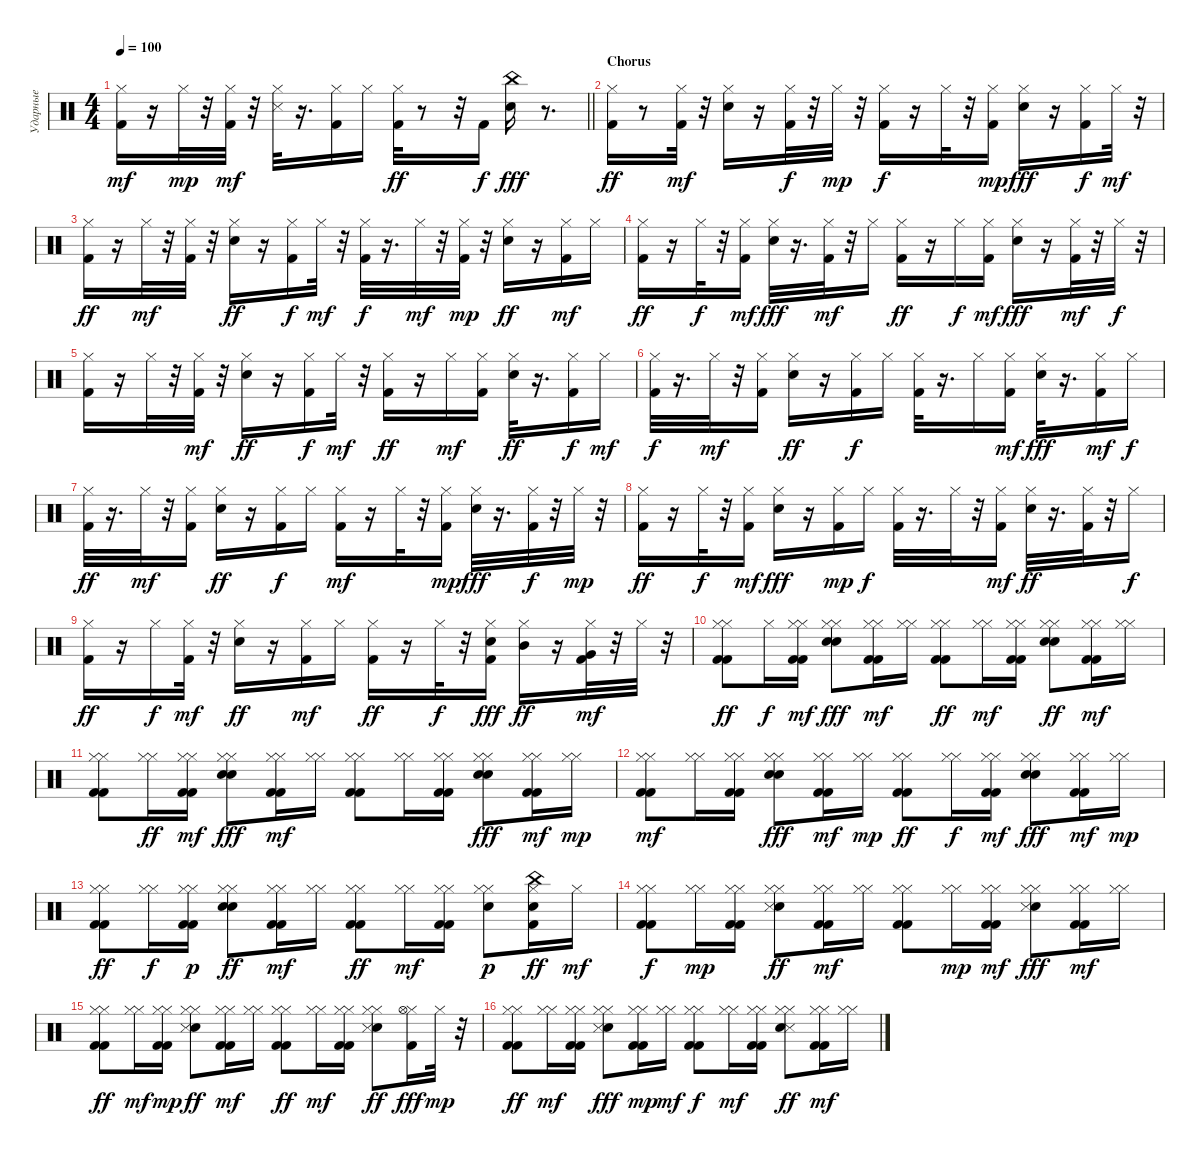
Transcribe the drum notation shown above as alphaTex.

\track ("Ударные" "Ударные") {instrument percussion}
\staff {score}
\articulation defaults
\ts (4 4)
\tempo 100
\clef neutral
\barLineRight lightlight
\ks c
("Kick (hit) 2" "Hi-Hat (closed)").16{dy mf} r.16 "Hi-Hat (closed)".32{dy mp} r.32 ("Kick (hit) 2" "Hi-Hat (closed)").32{dy mf} r.32 ("Hi-Hat (closed)" "Snare (side stick) 3").32 r.16{d} ("Kick (hit) 2" "Hi-Hat (closed)").16 "Hi-Hat (closed)".16 ("Kick (hit) 2" "Hi-Hat (closed)").32{dy ff} r.8 r.32 "Kick (hit) 2".16{dy f} ("China (hit)" "Snare (hit) 2").16{dy fff} r.8{d} |
\section ("" "Chorus")
("Kick (hit) 2" "Hi-Hat (closed)").16{dy ff} r.8 ("Hi-Hat (closed)" "Kick (hit) 2").32{dy mf} r.32 ("Snare (hit) 2" "Hi-Hat (closed)").16 r.16 ("Kick (hit) 2" "Hi-Hat (closed)").32{dy f} r.32 "Hi-Hat (closed)".32{dy mp} r.32 ("Kick (hit) 2" "Hi-Hat (closed)").16{dy f} r.16 "Hi-Hat (closed)".32 r.32 ("Kick (hit) 2" "Hi-Hat (closed)").16{dy mp} ("Hi-Hat (closed)" "Snare (hit) 2").16{dy fff} r.16 ("Kick (hit) 2" "Hi-Hat (closed)").16{dy f} "Hi-Hat (closed)".32{dy mf} r.32 |
("Kick (hit) 2" "Hi-Hat (closed)").16{dy ff} r.16 "Hi-Hat (closed)".32{dy mf} r.32 ("Kick (hit) 2" "Hi-Hat (closed)").32 r.32 ("Hi-Hat (closed)" "Snare (hit) 2").16{dy ff} r.16 ("Kick (hit) 2" "Hi-Hat (closed)").16{dy f} "Hi-Hat (closed)".32{dy mf} r.32 ("Kick (hit) 2" "Hi-Hat (closed)").32{dy f} r.16{d} "Hi-Hat (closed)".32{dy mf} r.32 ("Kick (hit) 2" "Hi-Hat (closed)").32{dy mp} r.32 ("Hi-Hat (closed)" "Snare (hit) 2").16{dy ff} r.16 ("Hi-Hat (closed)" "Kick (hit) 2").16{dy mf} "Hi-Hat (closed)".16 |
("Hi-Hat (closed)" "Kick (hit) 2").16{dy ff} r.16 "Hi-Hat (closed)".32{dy f} r.32 ("Kick (hit) 2" "Hi-Hat (closed)").16{dy mf} ("Hi-Hat (closed)" "Snare (hit) 2").32{dy fff} r.16{d} ("Kick (hit) 2" "Hi-Hat (closed)").32{dy mf} r.32 "Hi-Hat (closed)".16 ("Hi-Hat (closed)" "Kick (hit) 2").16{dy ff} r.16 "Hi-Hat (closed)".16{dy f} ("Kick (hit) 2" "Hi-Hat (closed)").16{dy mf} ("Hi-Hat (closed)" "Snare (hit) 2").16{dy fff} r.16 ("Kick (hit) 2" "Hi-Hat (closed)").32{dy mf} r.32 "Hi-Hat (closed)".32{dy f} r.32 |
("Hi-Hat (closed)" "Kick (hit) 2").16 r.16 "Hi-Hat (closed)".32 r.32 ("Kick (hit) 2" "Hi-Hat (closed)").32{dy mf} r.32 ("Hi-Hat (closed)" "Snare (hit) 2").16{dy ff} r.16 ("Kick (hit) 2" "Hi-Hat (closed)").16{dy f} "Hi-Hat (closed)".32{dy mf} r.32 ("Kick (hit) 2" "Hi-Hat (closed)").16{dy ff} r.16 "Hi-Hat (closed)".16{dy mf} ("Kick (hit) 2" "Hi-Hat (closed)").16 ("Hi-Hat (closed)" "Snare (hit) 2").32{dy ff} r.16{d} ("Kick (hit) 2" "Hi-Hat (closed)").16{dy f} "Hi-Hat (closed)".16{dy mf} |
("Kick (hit) 2" "Hi-Hat (closed)").32{dy f} r.16{d} "Hi-Hat (closed)".32{dy mf} r.32 ("Kick (hit) 2" "Hi-Hat (closed)").16 ("Hi-Hat (closed)" "Snare (hit) 2").16{dy ff} r.16 ("Kick (hit) 2" "Hi-Hat (closed)").16{dy f} "Hi-Hat (closed)".16 ("Kick (hit) 2" "Hi-Hat (closed)").32 r.16{d} "Hi-Hat (closed)".16 ("Kick (hit) 2" "Hi-Hat (closed)").16{dy mf} ("Hi-Hat (closed)" "Snare (hit) 2").32{dy fff} r.16{d} ("Kick (hit) 2" "Hi-Hat (closed)").16{dy mf} "Hi-Hat (closed)".16{dy f} |
("Kick (hit) 2" "Hi-Hat (closed)").32{dy ff} r.16{d} "Hi-Hat (closed)".32{dy mf} r.32 ("Kick (hit) 2" "Hi-Hat (closed)").16 ("Hi-Hat (closed)" "Snare (hit) 2").16{dy ff} r.16 ("Kick (hit) 2" "Hi-Hat (closed)").16{dy f} "Hi-Hat (closed)".16 ("Hi-Hat (closed)" "Kick (hit) 2").16{dy mf} r.16 "Hi-Hat (closed)".32 r.32 ("Kick (hit) 2" "Hi-Hat (closed)").16{dy mp} ("Hi-Hat (closed)" "Snare (hit) 2").32{dy fff} r.16{d} ("Kick (hit) 2" "Hi-Hat (closed)").32{dy f} r.32 "Hi-Hat (closed)".32{dy mp} r.32 |
("Kick (hit) 2" "Hi-Hat (closed)").16{dy ff} r.16 "Hi-Hat (closed)".32{dy f} r.32 ("Hi-Hat (closed)" "Kick (hit) 2").16{dy mf} ("Hi-Hat (closed)" "Snare (hit) 2").16{dy fff} r.16 ("Kick (hit) 2" "Hi-Hat (closed)").16{dy mp} "Hi-Hat (closed)".16{dy f} ("Kick (hit) 2" "Hi-Hat (closed)").32 r.16{d} "Hi-Hat (closed)".32 r.32 ("Kick (hit) 2" "Hi-Hat (closed)").16{dy mf} ("Hi-Hat (closed)" "Snare (hit) 2").32{dy ff} r.16{d} ("Kick (hit) 2" "Hi-Hat (closed)").32 r.32 "Hi-Hat (closed)".16{dy f} |
("Hi-Hat (closed)" "Kick (hit) 2").16{dy ff} r.16 "Hi-Hat (closed)".16{dy f} ("Kick (hit) 2" "Hi-Hat (closed)").32{dy mf} r.32 ("Hi-Hat (closed)" "Snare (hit) 2").16{dy ff} r.16 ("Hi-Hat (closed)" "Kick (hit) 2").16{dy mf} "Hi-Hat (closed)".16 ("Hi-Hat (closed)" "Kick (hit) 2").16{dy ff} r.16 "Hi-Hat (closed)".32{dy f} r.32 ("Hi-Hat (closed)" "Kick (hit) 2" "Snare (hit) 2").16{dy fff} ("Hi-Hat (closed)" "Mid Tom (hit)").16{dy ff} r.16 ("Kick (hit) 2" "Hi-Hat (closed)" "Very Low Tom (hit)").32{dy mf} r.32 "Hi-Hat (closed)".32 r.32 |
("Kick (hit) 2" "Hi-Hat (closed)" "Kick (hit) 2" "Hi-Hat (closed)").8{dy ff} "Hi-Hat (closed)".16{dy f} ("Hi-Hat (closed)" "Kick (hit) 2" "Kick (hit) 2" "Hi-Hat (closed)").16{dy mf} ("Snare (hit) 2" "Hi-Hat (closed)" "Hi-Hat (closed)" "Snare (hit) 2").8{dy fff} ("Kick (hit) 2" "Hi-Hat (closed)" "Kick (hit) 2" "Hi-Hat (closed)").16{dy mf} ("Hi-Hat (closed)" "Hi-Hat (closed)").16 ("Kick (hit) 2" "Hi-Hat (closed)" "Kick (hit) 2" "Hi-Hat (closed)").8{dy ff} ("Hi-Hat (closed)" "Hi-Hat (closed)").16{dy mf} ("Kick (hit) 2" "Hi-Hat (closed)" "Kick (hit) 2" "Hi-Hat (closed)").16 ("Hi-Hat (closed)" "Hi-Hat (closed)" "Snare (hit) 2" "Snare (hit) 2").8{dy ff} ("Kick (hit) 2" "Hi-Hat (closed)" "Kick (hit) 2" "Hi-Hat (closed)").16{dy mf} ("Hi-Hat (closed)" "Hi-Hat (closed)").16 |
("Kick (hit) 2" "Hi-Hat (closed)" "Kick (hit) 2" "Hi-Hat (closed)").8 ("Hi-Hat (closed)" "Hi-Hat (closed)").16{dy ff} ("Kick (hit) 2" "Hi-Hat (closed)" "Kick (hit) 2" "Hi-Hat (closed)").16{dy mf} ("Hi-Hat (closed)" "Snare (hit) 2" "Hi-Hat (closed)" "Snare (hit) 2").8{dy fff} ("Kick (hit) 2" "Hi-Hat (closed)" "Kick (hit) 2" "Hi-Hat (closed)").16{dy mf} ("Hi-Hat (closed)" "Hi-Hat (closed)").16 ("Kick (hit) 2" "Hi-Hat (closed)" "Kick (hit) 2" "Hi-Hat (closed)").8 ("Hi-Hat (closed)" "Hi-Hat (closed)").16 ("Kick (hit) 2" "Hi-Hat (closed)" "Hi-Hat (closed)" "Kick (hit) 2").16 ("Hi-Hat (closed)" "Hi-Hat (closed)" "Snare (hit) 2" "Snare (hit) 2").8{dy fff} ("Hi-Hat (closed)" "Kick (hit) 2" "Kick (hit) 2" "Hi-Hat (closed)").16{dy mf} ("Hi-Hat (closed)" "Hi-Hat (closed)").16{dy mp} |
("Hi-Hat (closed)" "Kick (hit) 2" "Hi-Hat (closed)" "Kick (hit) 2").8{dy mf} ("Hi-Hat (closed)" "Hi-Hat (closed)").16 ("Kick (hit) 2" "Hi-Hat (closed)" "Kick (hit) 2" "Hi-Hat (closed)").16 ("Hi-Hat (closed)" "Hi-Hat (closed)" "Snare (hit) 2" "Snare (hit) 2").8{dy fff} ("Kick (hit) 2" "Hi-Hat (closed)" "Kick (hit) 2" "Hi-Hat (closed)").16{dy mf} ("Hi-Hat (closed)" "Hi-Hat (closed)").16{dy mp} ("Hi-Hat (closed)" "Kick (hit) 2" "Kick (hit) 2" "Hi-Hat (closed)").8{dy ff} ("Hi-Hat (closed)" "Hi-Hat (closed)").16{dy f} ("Kick (hit) 2" "Hi-Hat (closed)" "Kick (hit) 2" "Hi-Hat (closed)").16{dy mf} ("Hi-Hat (closed)" "Hi-Hat (closed)" "Snare (hit) 2" "Snare (hit) 2").8{dy fff} ("Kick (hit) 2" "Hi-Hat (closed)" "Kick (hit) 2" "Hi-Hat (closed)").16{dy mf} ("Hi-Hat (closed)" "Hi-Hat (closed)").16{dy mp} |
("Hi-Hat (closed)" "Kick (hit) 2" "Hi-Hat (closed)" "Kick (hit) 2").8{dy ff} ("Hi-Hat (closed)" "Hi-Hat (closed)").16{dy f} ("Kick (hit) 2" "Hi-Hat (closed)" "Kick (hit) 2" "Hi-Hat (closed)").16{dy p} ("Hi-Hat (closed)" "Snare (hit) 2" "Hi-Hat (closed)" "Snare (hit) 2").8{dy ff} ("Kick (hit) 2" "Hi-Hat (closed)" "Kick (hit) 2" "Hi-Hat (closed)").16{dy mf} ("Hi-Hat (closed)" "Hi-Hat (closed)").16 ("Kick (hit) 2" "Kick (hit) 2" "Hi-Hat (closed)" "Hi-Hat (closed)").8{dy ff} ("Hi-Hat (closed)" "Hi-Hat (closed)").16{dy mf} ("Kick (hit) 2" "Hi-Hat (closed)" "Kick (hit) 2" "Hi-Hat (closed)").16 ("Hi-Hat (closed)" "Snare (hit) 2" "Hi-Hat (closed)").8{dy p} ("Kick (hit) 2" "Hi-Hat (closed)" "China (hit)" "Snare (hit) 2").16{dy ff} "Hi-Hat (closed)".16{dy mf} |
("Kick (hit) 2" "Hi-Hat (closed)" "Hi-Hat (closed)" "Kick (hit) 2").8{dy f} ("Hi-Hat (closed)" "Hi-Hat (closed)").16{dy mp} ("Kick (hit) 2" "Hi-Hat (closed)" "Kick (hit) 2" "Hi-Hat (closed)").16 ("Hi-Hat (closed)" "Hi-Hat (closed)" "Snare (hit) 2" "Snare (side stick) 3").8{dy ff} ("Kick (hit) 2" "Hi-Hat (closed)" "Hi-Hat (closed)" "Kick (hit) 2").16{dy mf} ("Hi-Hat (closed)" "Hi-Hat (closed)").16 ("Kick (hit) 2" "Hi-Hat (closed)" "Kick (hit) 2" "Hi-Hat (closed)").8 ("Hi-Hat (closed)" "Hi-Hat (closed)").16{dy mp} ("Kick (hit) 2" "Hi-Hat (closed)" "Hi-Hat (closed)" "Kick (hit) 2").16{dy mf} ("Hi-Hat (closed)" "Hi-Hat (closed)" "Snare (hit) 2" "Snare (side stick) 3").8{dy fff} ("Kick (hit) 2" "Hi-Hat (closed)" "Kick (hit) 2" "Hi-Hat (closed)").16{dy mf} ("Hi-Hat (closed)" "Hi-Hat (closed)").16 |
("Kick (hit) 2" "Hi-Hat (closed)" "Hi-Hat (closed)" "Kick (hit) 2").8{dy ff} ("Hi-Hat (closed)" "Hi-Hat (closed)").16{dy mf} ("Kick (hit) 2" "Hi-Hat (closed)" "Kick (hit) 2" "Hi-Hat (closed)").16{dy mp} ("Hi-Hat (closed)" "Hi-Hat (closed)" "Snare (hit) 2" "Snare (side stick) 3").8{dy ff} ("Kick (hit) 2" "Hi-Hat (closed)" "Hi-Hat (closed)" "Kick (hit) 2").16{dy mf} ("Hi-Hat (closed)" "Hi-Hat (closed)").16 ("Hi-Hat (closed)" "Kick (hit) 2" "Kick (hit) 2" "Hi-Hat (closed)").8{dy ff} ("Hi-Hat (closed)" "Hi-Hat (closed)").16{dy mf} ("Kick (hit) 2" "Hi-Hat (closed)" "Kick (hit) 2" "Hi-Hat (closed)").16 ("Hi-Hat (closed)" "Snare (hit) 2" "Snare (side stick) 3" "Hi-Hat (closed)").8{dy ff} ("Kick (hit) 2" "Hi-Hat (closed)" "Hi-Hat (open)").16{dy fff} "Hi-Hat (closed)".32{dy mp} r.32 |
("Kick (hit) 2" "Hi-Hat (closed)" "Kick (hit) 2" "Hi-Hat (closed)").8{dy ff} ("Hi-Hat (closed)" "Hi-Hat (closed)").16{dy mf} ("Hi-Hat (closed)" "Kick (hit) 2" "Hi-Hat (closed)" "Kick (hit) 2").16 ("Hi-Hat (closed)" "Hi-Hat (closed)" "Snare (hit) 2" "Snare (side stick) 3").8{dy fff} ("Kick (hit) 2" "Hi-Hat (closed)" "Hi-Hat (closed)" "Kick (hit) 2").16{dy mp} ("Hi-Hat (closed)" "Hi-Hat (closed)").16{dy mf} ("Kick (hit) 2" "Hi-Hat (closed)" "Hi-Hat (closed)" "Kick (hit) 2").8{dy f} ("Hi-Hat (closed)" "Hi-Hat (closed)").16{dy mf} ("Kick (hit) 2" "Hi-Hat (closed)" "Kick (hit) 2" "Hi-Hat (closed)").16 ("Hi-Hat (closed)" "Snare (side stick) 3" "Snare (hit) 2" "Hi-Hat (closed)").8{dy ff} ("Kick (hit) 2" "Hi-Hat (closed)" "Hi-Hat (closed)" "Kick (hit) 2").16{dy mf} ("Hi-Hat (closed)" "Hi-Hat (closed)").16
